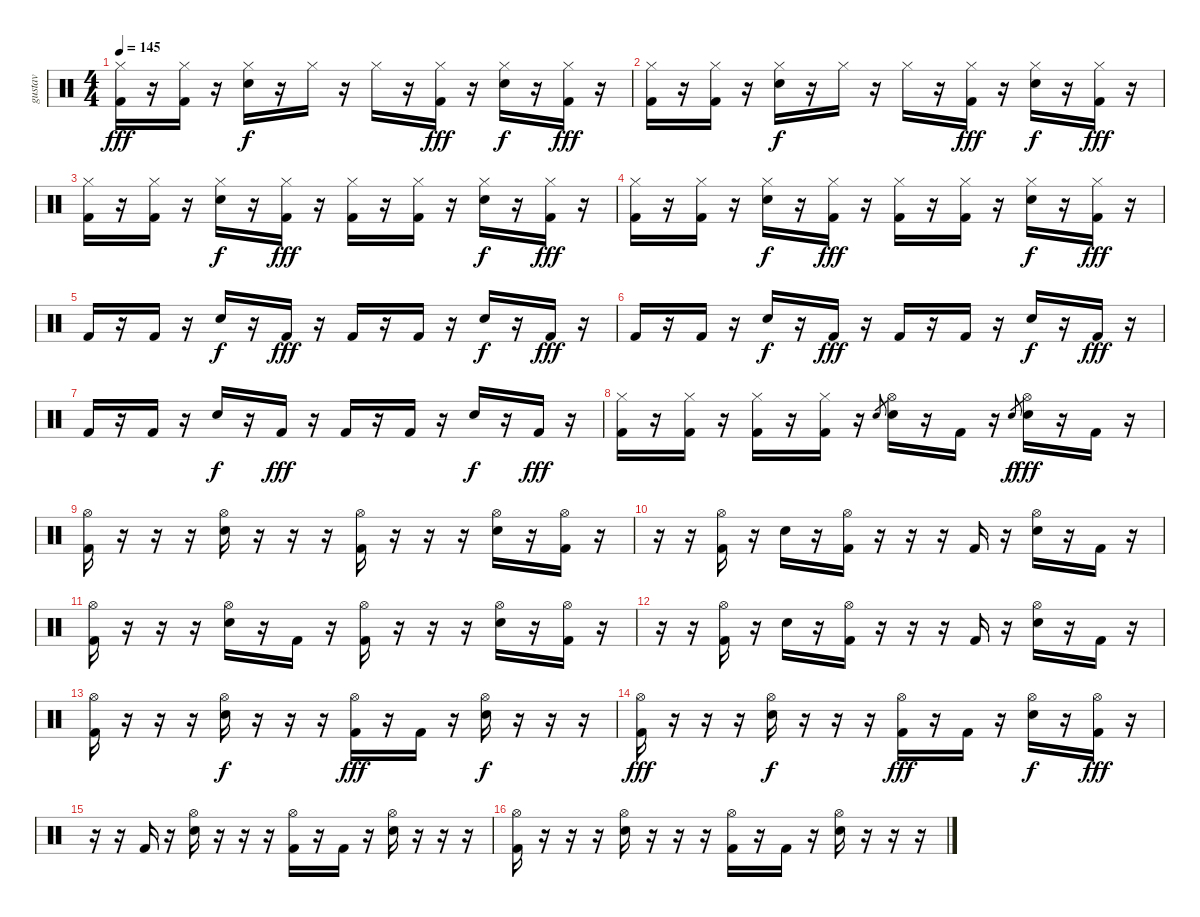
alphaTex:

\track ("gustav" "gustav") {instrument percussion}
\staff {score}
\articulation defaults
\ts (4 4)
\tempo 145
\clef neutral
\ks c
("Hi-Hat (closed)" "Kick (hit) 2").16{dy fff} r.16 ("Hi-Hat (closed)" "Kick (hit) 2").16 r.16 ("Hi-Hat (closed)" "Electric Snare (hit)").16{dy f} r.16 "Hi-Hat (closed)".16 r.16 "Hi-Hat (closed)".16 r.16 ("Hi-Hat (closed)" "Kick (hit) 2").16{dy fff} r.16 ("Hi-Hat (closed)" "Electric Snare (hit)").16{dy f} r.16 ("Hi-Hat (closed)" "Kick (hit) 2").16{dy fff} r.16 |
("Hi-Hat (closed)" "Kick (hit) 2").16 r.16 ("Hi-Hat (closed)" "Kick (hit) 2").16 r.16 ("Hi-Hat (closed)" "Electric Snare (hit)").16{dy f} r.16 "Hi-Hat (closed)".16 r.16 "Hi-Hat (closed)".16 r.16 ("Hi-Hat (closed)" "Kick (hit) 2").16{dy fff} r.16 ("Hi-Hat (closed)" "Electric Snare (hit)").16{dy f} r.16 ("Hi-Hat (closed)" "Kick (hit) 2").16{dy fff} r.16 |
("Hi-Hat (closed)" "Kick (hit) 2").16 r.16 ("Hi-Hat (closed)" "Kick (hit) 2").16 r.16 ("Hi-Hat (closed)" "Electric Snare (hit)").16{dy f} r.16 ("Hi-Hat (closed)" "Kick (hit) 2").16{dy fff} r.16 ("Hi-Hat (closed)" "Kick (hit) 2").16 r.16 ("Hi-Hat (closed)" "Kick (hit) 2").16 r.16 ("Hi-Hat (closed)" "Electric Snare (hit)").16{dy f} r.16 ("Hi-Hat (closed)" "Kick (hit) 2").16{dy fff} r.16 |
("Hi-Hat (closed)" "Kick (hit) 2").16 r.16 ("Hi-Hat (closed)" "Kick (hit) 2").16 r.16 ("Hi-Hat (closed)" "Electric Snare (hit)").16{dy f} r.16 ("Hi-Hat (closed)" "Kick (hit) 2").16{dy fff} r.16 ("Hi-Hat (closed)" "Kick (hit) 2").16 r.16 ("Hi-Hat (closed)" "Kick (hit) 2").16 r.16 ("Hi-Hat (closed)" "Electric Snare (hit)").16{dy f} r.16 ("Hi-Hat (closed)" "Kick (hit) 2").16{dy fff} r.16 |
"Kick (hit) 2".16 r.16 "Kick (hit) 2".16 r.16 "Electric Snare (hit)".16{dy f} r.16 "Kick (hit) 2".16{dy fff} r.16 "Kick (hit) 2".16 r.16 "Kick (hit) 2".16 r.16 "Electric Snare (hit)".16{dy f} r.16 "Kick (hit) 2".16{dy fff} r.16 |
"Kick (hit) 2".16 r.16 "Kick (hit) 2".16 r.16 "Electric Snare (hit)".16{dy f} r.16 "Kick (hit) 2".16{dy fff} r.16 "Kick (hit) 2".16 r.16 "Kick (hit) 2".16 r.16 "Electric Snare (hit)".16{dy f} r.16 "Kick (hit) 2".16{dy fff} r.16 |
"Kick (hit) 2".16 r.16 "Kick (hit) 2".16 r.16 "Electric Snare (hit)".16{dy f} r.16 "Kick (hit) 2".16{dy fff} r.16 "Kick (hit) 2".16 r.16 "Kick (hit) 2".16 r.16 "Electric Snare (hit)".16{dy f} r.16 "Kick (hit) 2".16{dy fff} r.16 |
("Hi-Hat (closed)" "Kick (hit) 2").16 r.16 ("Hi-Hat (closed)" "Kick (hit) 2").16 r.16 ("Hi-Hat (closed)" "Kick (hit) 2").16 r.16 ("Hi-Hat (closed)" "Kick (hit) 2").16 r.16 "Electric Snare (hit)".8{gr} ("Hi-Hat (open)" "Electric Snare (hit)").16 r.16 "Kick (hit) 2".16 r.16 "Electric Snare (hit)".8{gr dy f} ("Hi-Hat (open)" "Electric Snare (hit)").16{dy fff} r.16 "Kick (hit) 2".16 r.16 |
("Hi-Hat (open)" "Kick (hit) 2").16 r.16 r.16 r.16 ("Hi-Hat (open)" "Electric Snare (hit)").16 r.16 r.16 r.16 ("Hi-Hat (open)" "Kick (hit) 2").16 r.16 r.16 r.16 ("Hi-Hat (open)" "Electric Snare (hit)").16 r.16 ("Hi-Hat (open)" "Kick (hit) 2").16 r.16 |
r.16 r.16 ("Hi-Hat (open)" "Kick (hit) 2").16 r.16 "Electric Snare (hit)".16 r.16 ("Hi-Hat (open)" "Kick (hit) 2").16 r.16 r.16 r.16 "Kick (hit) 2".16 r.16 ("Hi-Hat (open)" "Electric Snare (hit)").16 r.16 "Kick (hit) 2".16 r.16 |
("Hi-Hat (open)" "Kick (hit) 2").16 r.16 r.16 r.16 ("Hi-Hat (open)" "Electric Snare (hit)").16 r.16 "Kick (hit) 2".16 r.16 ("Hi-Hat (open)" "Kick (hit) 2").16 r.16 r.16 r.16 ("Hi-Hat (open)" "Electric Snare (hit)").16 r.16 ("Hi-Hat (open)" "Kick (hit) 2").16 r.16 |
r.16 r.16 ("Hi-Hat (open)" "Kick (hit) 2").16 r.16 "Electric Snare (hit)".16 r.16 ("Hi-Hat (open)" "Kick (hit) 2").16 r.16 r.16 r.16 "Kick (hit) 2".16 r.16 ("Hi-Hat (open)" "Electric Snare (hit)").16 r.16 "Kick (hit) 2".16 r.16 |
("Hi-Hat (open)" "Kick (hit) 2").16 r.16 r.16 r.16 ("Hi-Hat (open)" "Electric Snare (hit)").16{dy f} r.16 r.16 r.16 ("Hi-Hat (open)" "Kick (hit) 2").16{dy fff} r.16 "Kick (hit) 2".16 r.16 ("Hi-Hat (open)" "Electric Snare (hit)").16{dy f} r.16 r.16 r.16 |
("Hi-Hat (open)" "Kick (hit) 2").16{dy fff} r.16 r.16 r.16 ("Hi-Hat (open)" "Electric Snare (hit)").16{dy f} r.16 r.16 r.16 ("Hi-Hat (open)" "Kick (hit) 2").16{dy fff} r.16 "Kick (hit) 2".16 r.16 ("Hi-Hat (open)" "Electric Snare (hit)").16{dy f} r.16 ("Hi-Hat (open)" "Kick (hit) 2").16{dy fff} r.16 |
r.16 r.16 "Kick (hit) 2".16 r.16 ("Hi-Hat (open)" "Electric Snare (hit)").16 r.16 r.16 r.16 ("Hi-Hat (open)" "Kick (hit) 2").16 r.16 "Kick (hit) 2".16 r.16 ("Hi-Hat (open)" "Electric Snare (hit)").16 r.16 r.16 r.16 |
("Hi-Hat (open)" "Kick (hit) 2").16 r.16 r.16 r.16 ("Hi-Hat (open)" "Electric Snare (hit)").16 r.16 r.16 r.16 ("Hi-Hat (open)" "Kick (hit) 2").16 r.16 "Kick (hit) 2".16 r.16 ("Hi-Hat (open)" "Electric Snare (hit)").16 r.16 r.16 r.16
